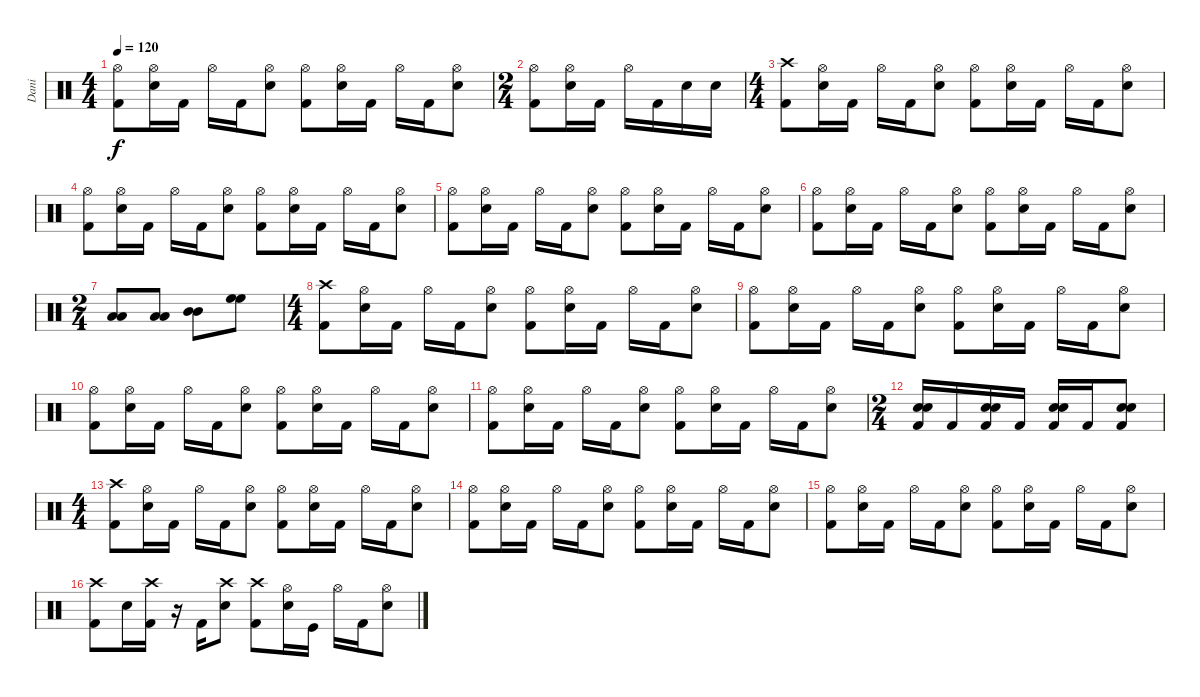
\track ("Dani" "Dani") {instrument percussion}
\staff {score}
\articulation defaults
\ts (4 4)
\tempo 120
\clef neutral
\ks c
("Hi-Hat (open)" "Kick (hit) 2").8{dy f} ("Hi-Hat (open)" "Snare (hit) 2").16 "Kick (hit) 2".16 "Hi-Hat (open)".16 "Kick (hit) 2".16 ("Hi-Hat (open)" "Snare (hit) 2").8 ("Hi-Hat (open)" "Kick (hit) 2").8 ("Hi-Hat (open)" "Snare (hit) 2").16 "Kick (hit) 2".16 "Hi-Hat (open)".16 "Kick (hit) 2".16 ("Hi-Hat (open)" "Snare (hit) 2").8 |
\ts (2 4)
("Hi-Hat (open)" "Kick (hit) 2").8 ("Hi-Hat (open)" "Snare (hit) 2").16 "Kick (hit) 2".16 "Hi-Hat (open)".16 "Kick (hit) 2".16 "Snare (hit) 2".16 "Snare (hit) 2".16 |
\ts (4 4)
("Crash high (hit)" "Kick (hit) 2").8 ("Hi-Hat (open)" "Snare (hit) 2").16 "Kick (hit) 2".16 "Hi-Hat (open)".16 "Kick (hit) 2".16 ("Hi-Hat (open)" "Snare (hit) 2").8 ("Hi-Hat (open)" "Kick (hit) 2").8 ("Hi-Hat (open)" "Snare (hit) 2").16 "Kick (hit) 2".16 "Hi-Hat (open)".16 "Kick (hit) 2".16 ("Hi-Hat (open)" "Snare (hit) 2").8 |
("Hi-Hat (open)" "Kick (hit) 2").8 ("Hi-Hat (open)" "Snare (hit) 2").16 "Kick (hit) 2".16 "Hi-Hat (open)".16 "Kick (hit) 2".16 ("Hi-Hat (open)" "Snare (hit) 2").8 ("Hi-Hat (open)" "Kick (hit) 2").8 ("Hi-Hat (open)" "Snare (hit) 2").16 "Kick (hit) 2".16 "Hi-Hat (open)".16 "Kick (hit) 2".16 ("Hi-Hat (open)" "Snare (hit) 2").8 |
("Hi-Hat (open)" "Kick (hit) 2").8 ("Hi-Hat (open)" "Snare (hit) 2").16 "Kick (hit) 2".16 "Hi-Hat (open)".16 "Kick (hit) 2".16 ("Hi-Hat (open)" "Snare (hit) 2").8 ("Hi-Hat (open)" "Kick (hit) 2").8 ("Hi-Hat (open)" "Snare (hit) 2").16 "Kick (hit) 2".16 "Hi-Hat (open)".16 "Kick (hit) 2".16 ("Hi-Hat (open)" "Snare (hit) 2").8 |
("Hi-Hat (open)" "Kick (hit) 2").8 ("Hi-Hat (open)" "Snare (hit) 2").16 "Kick (hit) 2".16 "Hi-Hat (open)".16 "Kick (hit) 2".16 ("Hi-Hat (open)" "Snare (hit) 2").8 ("Hi-Hat (open)" "Kick (hit) 2").8 ("Hi-Hat (open)" "Snare (hit) 2").16 "Kick (hit) 2".16 "Hi-Hat (open)".16 "Kick (hit) 2".16 ("Hi-Hat (open)" "Snare (hit) 2").8 |
\ts (2 4)
("Low Tom (hit)" "Low Tom (hit)").8{bd 240} ("Low Tom (hit)" "Low Tom (hit)").8{bd 240} ("Mid Tom (hit)" "Mid Tom (hit)").8{bd 240} ("High Floor Tom (hit)" "High Floor Tom (hit)").8{bd 240} |
\ts (4 4)
("Crash high (hit)" "Kick (hit) 2").8 ("Hi-Hat (open)" "Snare (hit) 2").16 "Kick (hit) 2".16 "Hi-Hat (open)".16 "Kick (hit) 2".16 ("Hi-Hat (open)" "Snare (hit) 2").8 ("Hi-Hat (open)" "Kick (hit) 2").8 ("Hi-Hat (open)" "Snare (hit) 2").16 "Kick (hit) 2".16 "Hi-Hat (open)".16 "Kick (hit) 2".16 ("Hi-Hat (open)" "Snare (hit) 2").8 |
("Hi-Hat (open)" "Kick (hit) 2").8 ("Hi-Hat (open)" "Snare (hit) 2").16 "Kick (hit) 2".16 "Hi-Hat (open)".16 "Kick (hit) 2".16 ("Hi-Hat (open)" "Snare (hit) 2").8 ("Hi-Hat (open)" "Kick (hit) 2").8 ("Hi-Hat (open)" "Snare (hit) 2").16 "Kick (hit) 2".16 "Hi-Hat (open)".16 "Kick (hit) 2".16 ("Hi-Hat (open)" "Snare (hit) 2").8 |
("Hi-Hat (open)" "Kick (hit) 2").8 ("Hi-Hat (open)" "Snare (hit) 2").16 "Kick (hit) 2".16 "Hi-Hat (open)".16 "Kick (hit) 2".16 ("Hi-Hat (open)" "Snare (hit) 2").8 ("Hi-Hat (open)" "Kick (hit) 2").8 ("Hi-Hat (open)" "Snare (hit) 2").16 "Kick (hit) 2".16 "Hi-Hat (open)".16 "Kick (hit) 2".16 ("Hi-Hat (open)" "Snare (hit) 2").8 |
("Hi-Hat (open)" "Kick (hit) 2").8 ("Hi-Hat (open)" "Snare (hit) 2").16 "Kick (hit) 2".16 "Hi-Hat (open)".16 "Kick (hit) 2".16 ("Hi-Hat (open)" "Snare (hit) 2").8 ("Hi-Hat (open)" "Kick (hit) 2").8 ("Hi-Hat (open)" "Snare (hit) 2").16 "Kick (hit) 2".16 "Hi-Hat (open)".16 "Kick (hit) 2".16 ("Hi-Hat (open)" "Snare (hit) 2").8 |
\ts (2 4)
("Snare (hit) 2" "Snare (hit) 2" "Kick (hit) 2").16{bd 240} "Kick (hit) 2".16 ("Snare (hit) 2" "Snare (hit) 2" "Kick (hit) 2").16{bd 240} "Kick (hit) 2".16 ("Snare (hit) 2" "Snare (hit) 2" "Kick (hit) 2").16{bd 240} "Kick (hit) 2".16 ("Snare (hit) 2" "Snare (hit) 2" "Kick (hit) 2").8{bd 240} |
\ts (4 4)
("Crash high (hit)" "Kick (hit) 2").8 ("Hi-Hat (open)" "Snare (hit) 2").16 "Kick (hit) 2".16 "Hi-Hat (open)".16 "Kick (hit) 2".16 ("Hi-Hat (open)" "Snare (hit) 2").8 ("Hi-Hat (open)" "Kick (hit) 2").8 ("Hi-Hat (open)" "Snare (hit) 2").16 "Kick (hit) 2".16 "Hi-Hat (open)".16 "Kick (hit) 2".16 ("Hi-Hat (open)" "Snare (hit) 2").8 |
("Hi-Hat (open)" "Kick (hit) 2").8 ("Hi-Hat (open)" "Snare (hit) 2").16 "Kick (hit) 2".16 "Hi-Hat (open)".16 "Kick (hit) 2".16 ("Hi-Hat (open)" "Snare (hit) 2").8 ("Hi-Hat (open)" "Kick (hit) 2").8 ("Hi-Hat (open)" "Snare (hit) 2").16 "Kick (hit) 2".16 "Hi-Hat (open)".16 "Kick (hit) 2".16 ("Hi-Hat (open)" "Snare (hit) 2").8 |
("Hi-Hat (open)" "Kick (hit) 2").8 ("Hi-Hat (open)" "Snare (hit) 2").16 "Kick (hit) 2".16 "Hi-Hat (open)".16 "Kick (hit) 2".16 ("Hi-Hat (open)" "Snare (hit) 2").8 ("Hi-Hat (open)" "Kick (hit) 2").8 ("Hi-Hat (open)" "Snare (hit) 2").16 "Kick (hit) 2".16 "Hi-Hat (open)".16 "Kick (hit) 2".16 ("Hi-Hat (open)" "Snare (hit) 2").8 |
("Crash high (hit)" "Kick (hit) 2").8 "Snare (hit) 2".16 ("Crash high (hit)" "Kick (hit) 2").16 r.16 "Kick (hit) 2".16 ("Crash high (hit)" "Snare (hit) 2").8 ("Crash high (hit)" "Kick (hit) 2").8 ("Hi-Hat (open)" "Snare (hit) 2").16 "Kick (hit)".16 "Hi-Hat (open)".16 "Kick (hit) 2".16 ("Hi-Hat (open)" "Snare (hit) 2").8
